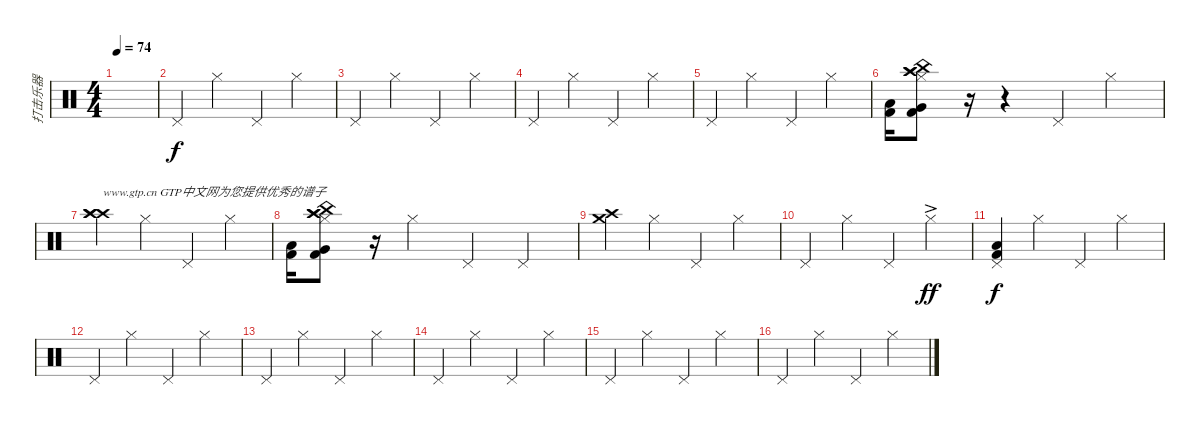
\track ("打击乐器" "打击乐器") {instrument percussion}
\staff {score}
\articulation defaults
\ts (4 4)
\tempo 74
\clef neutral
\ks c
|
"Pedal Hi-Hat (hit)".4 "Hi-Hat (closed)".4 "Pedal Hi-Hat (hit)".4 "Hi-Hat (closed)".4 |
"Pedal Hi-Hat (hit)".4 "Hi-Hat (closed)".4 "Pedal Hi-Hat (hit)".4 "Hi-Hat (closed)".4 |
"Pedal Hi-Hat (hit)".4 "Hi-Hat (closed)".4 "Pedal Hi-Hat (hit)".4 "Hi-Hat (closed)".4 |
"Pedal Hi-Hat (hit)".4 "Hi-Hat (closed)".4 "Pedal Hi-Hat (hit)".4 "Hi-Hat (closed)".4 |
("Kick (hit) 2" "Low Floor Tom (hit)").16 ("Kick (hit) 2" "Crash high (hit)" "Very Low Tom (hit)" "Hi-Hat (closed)" "China (hit)" "Crash high (hit)").8 r.16 r.4 "Pedal Hi-Hat (hit)".4 "Hi-Hat (closed)".4 |
("Crash high (hit)" "Crash high (hit)" "Crash high (hit)").4{txt "www.gtp.cn GTP中文网为您提供优秀的谱子"} "Hi-Hat (closed)".4 "Pedal Hi-Hat (hit)".4 "Hi-Hat (closed)".4 |
("Kick (hit) 2" "Low Floor Tom (hit)").16 ("Kick (hit) 2" "Crash high (hit)" "Very Low Tom (hit)" "Hi-Hat (closed)" "China (hit)" "Crash high (hit)").8 r.16 "Hi-Hat (closed)".4 "Pedal Hi-Hat (hit)".4 "Pedal Hi-Hat (hit)".4 |
("Crash high (hit)" "Crash medium (hit)").4 "Hi-Hat (closed)".4 "Pedal Hi-Hat (hit)".4 "Hi-Hat (closed)".4 |
"Pedal Hi-Hat (hit)".4 "Hi-Hat (closed)".4 "Pedal Hi-Hat (hit)".4 "Hi-Hat (closed)"{ac}.4{dy ff} |
("Kick (hit) 2" "Low Floor Tom (hit)" "Pedal Hi-Hat (hit)").4{dy f} "Hi-Hat (closed)".4 "Pedal Hi-Hat (hit)".4 "Hi-Hat (closed)".4 |
"Pedal Hi-Hat (hit)".4 "Hi-Hat (closed)".4 "Pedal Hi-Hat (hit)".4 "Hi-Hat (closed)".4 |
"Pedal Hi-Hat (hit)".4 "Hi-Hat (closed)".4 "Pedal Hi-Hat (hit)".4 "Hi-Hat (closed)".4 |
"Pedal Hi-Hat (hit)".4 "Hi-Hat (closed)".4 "Pedal Hi-Hat (hit)".4 "Hi-Hat (closed)".4 |
"Pedal Hi-Hat (hit)".4 "Hi-Hat (closed)".4 "Pedal Hi-Hat (hit)".4 "Hi-Hat (closed)".4 |
"Pedal Hi-Hat (hit)".4 "Hi-Hat (closed)".4 "Pedal Hi-Hat (hit)".4 "Hi-Hat (closed)".4
